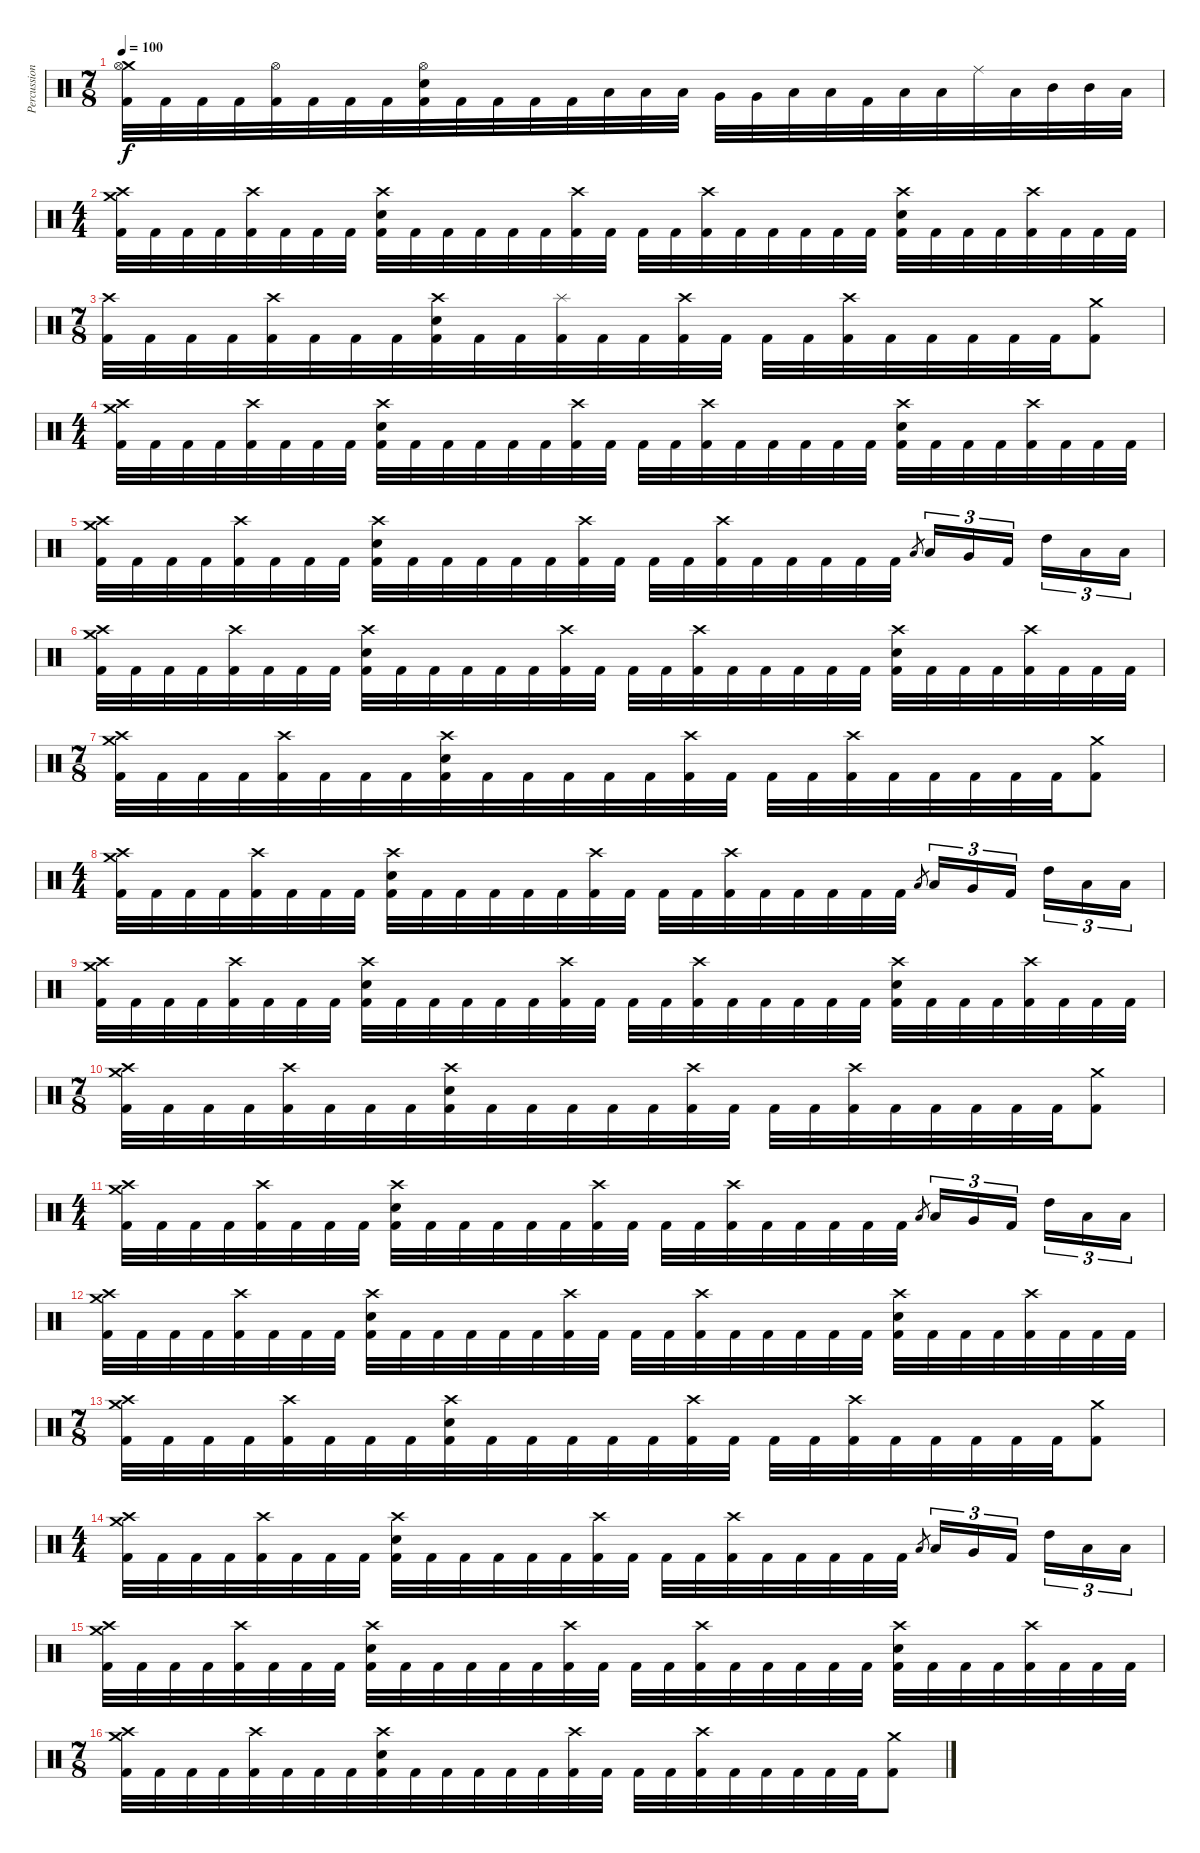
\track ("Percussion" "Percussion") {instrument percussion}
\staff {score}
\articulation defaults
\ts (7 8)
\tempo 100
\clef neutral
\ks c
("Crash medium (hit)" "Hi-Hat (open)" "Kick (hit) 2").32{dy f} "Kick (hit) 2".32 "Kick (hit) 2".32 "Kick (hit) 2".32 ("Hi-Hat (open)" "Kick (hit) 2").32 "Kick (hit) 2".32 "Kick (hit) 2".32 "Kick (hit) 2".32 ("Hi-Hat (open)" "Snare (hit) 2" "Kick (hit) 2").32 "Kick (hit) 2".32 "Kick (hit) 2".32 "Kick (hit) 2".32 "Kick (hit) 2".32 "Low Tom (hit)".32 "Low Tom (hit)".32 "Low Tom (hit)".32 "Very Low Tom (hit)".32 "Very Low Tom (hit)".32 "Low Tom (hit)".32 "Low Tom (hit)".32 "Kick (hit) 2".32 "Low Tom (hit)".32 "Low Tom (hit)".32 "Ride (middle)".32 "Low Tom (hit)".32 "Mid Tom (hit)".32 "Mid Tom (hit)".32 "Low Tom (hit)".32 |
\ts (4 4)
("Crash medium (hit)" "Crash high (hit)" "Kick (hit) 2").32 "Kick (hit) 2".32 "Kick (hit) 2".32 "Kick (hit) 2".32 ("Crash high (hit)" "Kick (hit) 2").32 "Kick (hit) 2".32 "Kick (hit) 2".32 "Kick (hit) 2".32 ("Crash high (hit)" "Snare (hit) 2" "Kick (hit) 2").32 "Kick (hit) 2".32 "Kick (hit) 2".32 "Kick (hit) 2".32 "Kick (hit) 2".32 "Kick (hit) 2".32 ("Crash high (hit)" "Kick (hit) 2").32 "Kick (hit) 2".32 "Kick (hit) 2".32 "Kick (hit) 2".32 ("Crash high (hit)" "Kick (hit) 2").32 "Kick (hit) 2".32 "Kick (hit) 2".32 "Kick (hit) 2".32 "Kick (hit) 2".32 "Kick (hit) 2".32 ("Crash high (hit)" "Snare (hit) 2" "Kick (hit) 2").32 "Kick (hit) 2".32 "Kick (hit) 2".32 "Kick (hit) 2".32 ("Crash high (hit)" "Kick (hit) 2").32 "Kick (hit) 2".32 "Kick (hit) 2".32 "Kick (hit) 2".32 |
\ts (7 8)
("Crash high (hit)" "Kick (hit) 2").32 "Kick (hit) 2".32 "Kick (hit) 2".32 "Kick (hit) 2".32 ("Crash high (hit)" "Kick (hit) 2").32 "Kick (hit) 2".32 "Kick (hit) 2".32 "Kick (hit) 2".32 ("Crash high (hit)" "Snare (hit) 2" "Kick (hit) 2").32 "Kick (hit) 2".32 "Kick (hit) 2".32 ("Splash (hit)" "Kick (hit) 2").32 "Kick (hit) 2".32 "Kick (hit) 2".32 ("Crash high (hit)" "Kick (hit) 2").32 "Kick (hit) 2".32 "Kick (hit) 2".32 "Kick (hit) 2".32 ("Crash high (hit)" "Kick (hit) 2").32 "Kick (hit) 2".32 "Kick (hit) 2".32 "Kick (hit) 2".32 "Kick (hit) 2".32 "Kick (hit) 2".32 ("Crash medium (hit)" "Kick (hit) 2").8 |
\ts (4 4)
("Crash medium (hit)" "Crash high (hit)" "Kick (hit) 2").32 "Kick (hit) 2".32 "Kick (hit) 2".32 "Kick (hit) 2".32 ("Crash high (hit)" "Kick (hit) 2").32 "Kick (hit) 2".32 "Kick (hit) 2".32 "Kick (hit) 2".32 ("Crash high (hit)" "Snare (hit) 2" "Kick (hit) 2").32 "Kick (hit) 2".32 "Kick (hit) 2".32 "Kick (hit) 2".32 "Kick (hit) 2".32 "Kick (hit) 2".32 ("Crash high (hit)" "Kick (hit) 2").32 "Kick (hit) 2".32 "Kick (hit) 2".32 "Kick (hit) 2".32 ("Crash high (hit)" "Kick (hit) 2").32 "Kick (hit) 2".32 "Kick (hit) 2".32 "Kick (hit) 2".32 "Kick (hit) 2".32 "Kick (hit) 2".32 ("Crash high (hit)" "Snare (hit) 2" "Kick (hit) 2").32 "Kick (hit) 2".32 "Kick (hit) 2".32 "Kick (hit) 2".32 ("Crash high (hit)" "Kick (hit) 2").32 "Kick (hit) 2".32 "Kick (hit) 2".32 "Kick (hit) 2".32 |
("Crash medium (hit)" "Crash high (hit)" "Kick (hit) 2").32 "Kick (hit) 2".32 "Kick (hit) 2".32 "Kick (hit) 2".32 ("Crash high (hit)" "Kick (hit) 2").32 "Kick (hit) 2".32 "Kick (hit) 2".32 "Kick (hit) 2".32 ("Crash high (hit)" "Snare (hit) 2" "Kick (hit) 2").32 "Kick (hit) 2".32 "Kick (hit) 2".32 "Kick (hit) 2".32 "Kick (hit) 2".32 "Kick (hit) 2".32 ("Crash high (hit)" "Kick (hit) 2").32 "Kick (hit) 2".32 "Kick (hit) 2".32 "Kick (hit) 2".32 ("Crash high (hit)" "Kick (hit) 2").32 "Kick (hit) 2".32 "Kick (hit) 2".32 "Kick (hit) 2".32 "Kick (hit) 2".32 "Kick (hit) 2".32 "Low Tom (hit)".8{gr} "Low Tom (hit)".16{tu (3 2)} "Very Low Tom (hit)".16{tu (3 2)} "Kick (hit) 2".16{tu (3 2)} "High Tom (hit)".16{tu (3 2)} "Low Tom (hit)".16{tu (3 2)} "Low Floor Tom (hit)".16{tu (3 2)} |
("Crash medium (hit)" "Crash high (hit)" "Kick (hit) 2").32 "Kick (hit) 2".32 "Kick (hit) 2".32 "Kick (hit) 2".32 ("Crash high (hit)" "Kick (hit) 2").32 "Kick (hit) 2".32 "Kick (hit) 2".32 "Kick (hit) 2".32 ("Crash high (hit)" "Snare (hit) 2" "Kick (hit) 2").32 "Kick (hit) 2".32 "Kick (hit) 2".32 "Kick (hit) 2".32 "Kick (hit) 2".32 "Kick (hit) 2".32 ("Crash high (hit)" "Kick (hit) 2").32 "Kick (hit) 2".32 "Kick (hit) 2".32 "Kick (hit) 2".32 ("Crash high (hit)" "Kick (hit) 2").32 "Kick (hit) 2".32 "Kick (hit) 2".32 "Kick (hit) 2".32 "Kick (hit) 2".32 "Kick (hit) 2".32 ("Crash high (hit)" "Snare (hit) 2" "Kick (hit) 2").32 "Kick (hit) 2".32 "Kick (hit) 2".32 "Kick (hit) 2".32 ("Crash high (hit)" "Kick (hit) 2").32 "Kick (hit) 2".32 "Kick (hit) 2".32 "Kick (hit) 2".32 |
\ts (7 8)
("Crash medium (hit)" "Crash high (hit)" "Kick (hit) 2").32 "Kick (hit) 2".32 "Kick (hit) 2".32 "Kick (hit) 2".32 ("Crash high (hit)" "Kick (hit) 2").32 "Kick (hit) 2".32 "Kick (hit) 2".32 "Kick (hit) 2".32 ("Crash high (hit)" "Snare (hit) 2" "Kick (hit) 2").32 "Kick (hit) 2".32 "Kick (hit) 2".32 "Kick (hit) 2".32 "Kick (hit) 2".32 "Kick (hit) 2".32 ("Crash high (hit)" "Kick (hit) 2").32 "Kick (hit) 2".32 "Kick (hit) 2".32 "Kick (hit) 2".32 ("Crash high (hit)" "Kick (hit) 2").32 "Kick (hit) 2".32 "Kick (hit) 2".32 "Kick (hit) 2".32 "Kick (hit) 2".32 "Kick (hit) 2".32 ("Crash medium (hit)" "Kick (hit) 2").8 |
\ts (4 4)
("Crash medium (hit)" "Crash high (hit)" "Kick (hit) 2").32 "Kick (hit) 2".32 "Kick (hit) 2".32 "Kick (hit) 2".32 ("Crash high (hit)" "Kick (hit) 2").32 "Kick (hit) 2".32 "Kick (hit) 2".32 "Kick (hit) 2".32 ("Crash high (hit)" "Snare (hit) 2" "Kick (hit) 2").32 "Kick (hit) 2".32 "Kick (hit) 2".32 "Kick (hit) 2".32 "Kick (hit) 2".32 "Kick (hit) 2".32 ("Crash high (hit)" "Kick (hit) 2").32 "Kick (hit) 2".32 "Kick (hit) 2".32 "Kick (hit) 2".32 ("Crash high (hit)" "Kick (hit) 2").32 "Kick (hit) 2".32 "Kick (hit) 2".32 "Kick (hit) 2".32 "Kick (hit) 2".32 "Kick (hit) 2".32 "Low Tom (hit)".8{gr} "Low Tom (hit)".16{tu (3 2)} "Very Low Tom (hit)".16{tu (3 2)} "Kick (hit) 2".16{tu (3 2)} "High Tom (hit)".16{tu (3 2)} "Low Tom (hit)".16{tu (3 2)} "Low Floor Tom (hit)".16{tu (3 2)} |
("Crash medium (hit)" "Crash high (hit)" "Kick (hit) 2").32 "Kick (hit) 2".32 "Kick (hit) 2".32 "Kick (hit) 2".32 ("Crash high (hit)" "Kick (hit) 2").32 "Kick (hit) 2".32 "Kick (hit) 2".32 "Kick (hit) 2".32 ("Crash high (hit)" "Snare (hit) 2" "Kick (hit) 2").32 "Kick (hit) 2".32 "Kick (hit) 2".32 "Kick (hit) 2".32 "Kick (hit) 2".32 "Kick (hit) 2".32 ("Crash high (hit)" "Kick (hit) 2").32 "Kick (hit) 2".32 "Kick (hit) 2".32 "Kick (hit) 2".32 ("Crash high (hit)" "Kick (hit) 2").32 "Kick (hit) 2".32 "Kick (hit) 2".32 "Kick (hit) 2".32 "Kick (hit) 2".32 "Kick (hit) 2".32 ("Crash high (hit)" "Snare (hit) 2" "Kick (hit) 2").32 "Kick (hit) 2".32 "Kick (hit) 2".32 "Kick (hit) 2".32 ("Crash high (hit)" "Kick (hit) 2").32 "Kick (hit) 2".32 "Kick (hit) 2".32 "Kick (hit) 2".32 |
\ts (7 8)
("Crash medium (hit)" "Crash high (hit)" "Kick (hit) 2").32 "Kick (hit) 2".32 "Kick (hit) 2".32 "Kick (hit) 2".32 ("Crash high (hit)" "Kick (hit) 2").32 "Kick (hit) 2".32 "Kick (hit) 2".32 "Kick (hit) 2".32 ("Crash high (hit)" "Snare (hit) 2" "Kick (hit) 2").32 "Kick (hit) 2".32 "Kick (hit) 2".32 "Kick (hit) 2".32 "Kick (hit) 2".32 "Kick (hit) 2".32 ("Crash high (hit)" "Kick (hit) 2").32 "Kick (hit) 2".32 "Kick (hit) 2".32 "Kick (hit) 2".32 ("Crash high (hit)" "Kick (hit) 2").32 "Kick (hit) 2".32 "Kick (hit) 2".32 "Kick (hit) 2".32 "Kick (hit) 2".32 "Kick (hit) 2".32 ("Crash medium (hit)" "Kick (hit) 2").8 |
\ts (4 4)
("Crash medium (hit)" "Crash high (hit)" "Kick (hit) 2").32 "Kick (hit) 2".32 "Kick (hit) 2".32 "Kick (hit) 2".32 ("Crash high (hit)" "Kick (hit) 2").32 "Kick (hit) 2".32 "Kick (hit) 2".32 "Kick (hit) 2".32 ("Crash high (hit)" "Snare (hit) 2" "Kick (hit) 2").32 "Kick (hit) 2".32 "Kick (hit) 2".32 "Kick (hit) 2".32 "Kick (hit) 2".32 "Kick (hit) 2".32 ("Crash high (hit)" "Kick (hit) 2").32 "Kick (hit) 2".32 "Kick (hit) 2".32 "Kick (hit) 2".32 ("Crash high (hit)" "Kick (hit) 2").32 "Kick (hit) 2".32 "Kick (hit) 2".32 "Kick (hit) 2".32 "Kick (hit) 2".32 "Kick (hit) 2".32 "Low Tom (hit)".8{gr} "Low Tom (hit)".16{tu (3 2)} "Very Low Tom (hit)".16{tu (3 2)} "Kick (hit) 2".16{tu (3 2)} "High Tom (hit)".16{tu (3 2)} "Low Tom (hit)".16{tu (3 2)} "Low Floor Tom (hit)".16{tu (3 2)} |
("Crash medium (hit)" "Crash high (hit)" "Kick (hit) 2").32 "Kick (hit) 2".32 "Kick (hit) 2".32 "Kick (hit) 2".32 ("Crash high (hit)" "Kick (hit) 2").32 "Kick (hit) 2".32 "Kick (hit) 2".32 "Kick (hit) 2".32 ("Crash high (hit)" "Snare (hit) 2" "Kick (hit) 2").32 "Kick (hit) 2".32 "Kick (hit) 2".32 "Kick (hit) 2".32 "Kick (hit) 2".32 "Kick (hit) 2".32 ("Crash high (hit)" "Kick (hit) 2").32 "Kick (hit) 2".32 "Kick (hit) 2".32 "Kick (hit) 2".32 ("Crash high (hit)" "Kick (hit) 2").32 "Kick (hit) 2".32 "Kick (hit) 2".32 "Kick (hit) 2".32 "Kick (hit) 2".32 "Kick (hit) 2".32 ("Crash high (hit)" "Snare (hit) 2" "Kick (hit) 2").32 "Kick (hit) 2".32 "Kick (hit) 2".32 "Kick (hit) 2".32 ("Crash high (hit)" "Kick (hit) 2").32 "Kick (hit) 2".32 "Kick (hit) 2".32 "Kick (hit) 2".32 |
\ts (7 8)
("Crash medium (hit)" "Crash high (hit)" "Kick (hit) 2").32 "Kick (hit) 2".32 "Kick (hit) 2".32 "Kick (hit) 2".32 ("Crash high (hit)" "Kick (hit) 2").32 "Kick (hit) 2".32 "Kick (hit) 2".32 "Kick (hit) 2".32 ("Crash high (hit)" "Snare (hit) 2" "Kick (hit) 2").32 "Kick (hit) 2".32 "Kick (hit) 2".32 "Kick (hit) 2".32 "Kick (hit) 2".32 "Kick (hit) 2".32 ("Crash high (hit)" "Kick (hit) 2").32 "Kick (hit) 2".32 "Kick (hit) 2".32 "Kick (hit) 2".32 ("Crash high (hit)" "Kick (hit) 2").32 "Kick (hit) 2".32 "Kick (hit) 2".32 "Kick (hit) 2".32 "Kick (hit) 2".32 "Kick (hit) 2".32 ("Crash medium (hit)" "Kick (hit) 2").8 |
\ts (4 4)
("Crash medium (hit)" "Crash high (hit)" "Kick (hit) 2").32 "Kick (hit) 2".32 "Kick (hit) 2".32 "Kick (hit) 2".32 ("Crash high (hit)" "Kick (hit) 2").32 "Kick (hit) 2".32 "Kick (hit) 2".32 "Kick (hit) 2".32 ("Crash high (hit)" "Snare (hit) 2" "Kick (hit) 2").32 "Kick (hit) 2".32 "Kick (hit) 2".32 "Kick (hit) 2".32 "Kick (hit) 2".32 "Kick (hit) 2".32 ("Crash high (hit)" "Kick (hit) 2").32 "Kick (hit) 2".32 "Kick (hit) 2".32 "Kick (hit) 2".32 ("Crash high (hit)" "Kick (hit) 2").32 "Kick (hit) 2".32 "Kick (hit) 2".32 "Kick (hit) 2".32 "Kick (hit) 2".32 "Kick (hit) 2".32 "Low Tom (hit)".8{gr} "Low Tom (hit)".16{tu (3 2)} "Very Low Tom (hit)".16{tu (3 2)} "Kick (hit) 2".16{tu (3 2)} "High Tom (hit)".16{tu (3 2)} "Low Tom (hit)".16{tu (3 2)} "Low Floor Tom (hit)".16{tu (3 2)} |
("Crash medium (hit)" "Crash high (hit)" "Kick (hit) 2").32 "Kick (hit) 2".32 "Kick (hit) 2".32 "Kick (hit) 2".32 ("Crash high (hit)" "Kick (hit) 2").32 "Kick (hit) 2".32 "Kick (hit) 2".32 "Kick (hit) 2".32 ("Crash high (hit)" "Snare (hit) 2" "Kick (hit) 2").32 "Kick (hit) 2".32 "Kick (hit) 2".32 "Kick (hit) 2".32 "Kick (hit) 2".32 "Kick (hit) 2".32 ("Crash high (hit)" "Kick (hit) 2").32 "Kick (hit) 2".32 "Kick (hit) 2".32 "Kick (hit) 2".32 ("Crash high (hit)" "Kick (hit) 2").32 "Kick (hit) 2".32 "Kick (hit) 2".32 "Kick (hit) 2".32 "Kick (hit) 2".32 "Kick (hit) 2".32 ("Crash high (hit)" "Snare (hit) 2" "Kick (hit) 2").32 "Kick (hit) 2".32 "Kick (hit) 2".32 "Kick (hit) 2".32 ("Crash high (hit)" "Kick (hit) 2").32 "Kick (hit) 2".32 "Kick (hit) 2".32 "Kick (hit) 2".32 |
\ts (7 8)
("Crash medium (hit)" "Crash high (hit)" "Kick (hit) 2").32 "Kick (hit) 2".32 "Kick (hit) 2".32 "Kick (hit) 2".32 ("Crash high (hit)" "Kick (hit) 2").32 "Kick (hit) 2".32 "Kick (hit) 2".32 "Kick (hit) 2".32 ("Crash high (hit)" "Snare (hit) 2" "Kick (hit) 2").32 "Kick (hit) 2".32 "Kick (hit) 2".32 "Kick (hit) 2".32 "Kick (hit) 2".32 "Kick (hit) 2".32 ("Crash high (hit)" "Kick (hit) 2").32 "Kick (hit) 2".32 "Kick (hit) 2".32 "Kick (hit) 2".32 ("Crash high (hit)" "Kick (hit) 2").32 "Kick (hit) 2".32 "Kick (hit) 2".32 "Kick (hit) 2".32 "Kick (hit) 2".32 "Kick (hit) 2".32 ("Crash medium (hit)" "Kick (hit) 2").8
